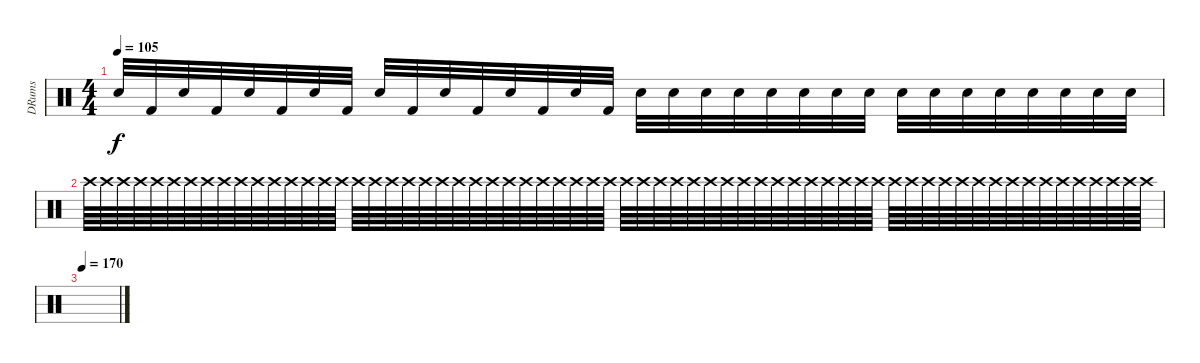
\track ("DRums" "DRums") {instrument percussion}
\staff {score}
\articulation defaults
\ts (4 4)
\tempo 105
\clef neutral
\ks c "Electric Snare (hit)".32{dy f} "Kick (hit) 2".32 "Electric Snare (hit)".32 "Kick (hit) 2".32 "Electric Snare (hit)".32 "Kick (hit) 2".32 "Electric Snare (hit)".32 "Kick (hit) 2".32 "Electric Snare (hit)".32 "Kick (hit) 2".32 "Electric Snare (hit)".32 "Kick (hit) 2".32 "Electric Snare (hit)".32 "Kick (hit) 2".32 "Electric Snare (hit)".32 "Kick (hit) 2".32 "Electric Snare (hit)".32 "Electric Snare (hit)".32 "Electric Snare (hit)".32 "Electric Snare (hit)".32 "Electric Snare (hit)".32 "Electric Snare (hit)".32 "Electric Snare (hit)".32 "Electric Snare (hit)".32 "Electric Snare (hit)".32 "Electric Snare (hit)".32 "Electric Snare (hit)".32 "Electric Snare (hit)".32 "Electric Snare (hit)".32 "Electric Snare (hit)".32 "Electric Snare (hit)".32 "Electric Snare (hit)".32
|
"Crash high (hit)".64 "Crash high (hit)".64 "Crash high (hit)".64 "Crash high (hit)".64 "Crash high (hit)".64 "Crash high (hit)".64 "Crash high (hit)".64 "Crash high (hit)".64 "Crash high (hit)".64 "Crash high (hit)".64 "Crash high (hit)".64 "Crash high (hit)".64 "Crash high (hit)".64 "Crash high (hit)".64 "Crash high (hit)".64 "Crash high (hit)".64 "Crash high (hit)".64 "Crash high (hit)".64 "Crash high (hit)".64 "Crash high (hit)".64 "Crash high (hit)".64 "Crash high (hit)".64 "Crash high (hit)".64 "Crash high (hit)".64 "Crash high (hit)".64 "Crash high (hit)".64 "Crash high (hit)".64 "Crash high (hit)".64 "Crash high (hit)".64 "Crash high (hit)".64 "Crash high (hit)".64 "Crash high (hit)".64 "Crash high (hit)".64 "Crash high (hit)".64 "Crash high (hit)".64 "Crash high (hit)".64 "Crash high (hit)".64 "Crash high (hit)".64 "Crash high (hit)".64 "Crash high (hit)".64 "Crash high (hit)".64 "Crash high (hit)".64 "Crash high (hit)".64 "Crash high (hit)".64 "Crash high (hit)".64 "Crash high (hit)".64 "Crash high (hit)".64 "Crash high (hit)".64 "Crash high (hit)".64 "Crash high (hit)".64 "Crash high (hit)".64 "Crash high (hit)".64 "Crash high (hit)".64 "Crash high (hit)".64 "Crash high (hit)".64 "Crash high (hit)".64 "Crash high (hit)".64 "Crash high (hit)".64 "Crash high (hit)".64 "Crash high (hit)".64 "Crash high (hit)".64 "Crash high (hit)".64 "Crash high (hit)".64 "Crash high (hit)".64 |
\tempo 170
